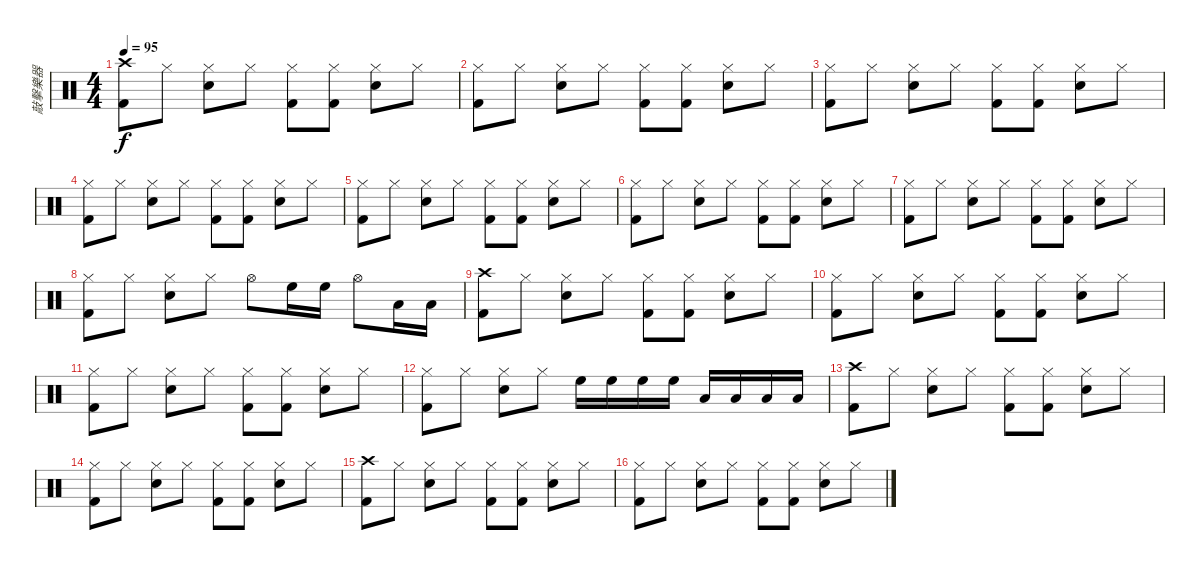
\track ("敲擊樂器" "敲擊樂器") {instrument percussion}
\staff {score}
\articulation defaults
\ts (4 4)
\tempo 95
\clef neutral
\ks c
("Crash high (hit)" "Kick (hit) 2").8{dy f} "Hi-Hat (closed)".8 ("Hi-Hat (closed)" "Snare (hit) 2").8 "Hi-Hat (closed)".8 ("Hi-Hat (closed)" "Kick (hit) 2").8 ("Hi-Hat (closed)" "Kick (hit) 2").8 ("Hi-Hat (closed)" "Snare (hit) 2").8 "Hi-Hat (closed)".8 |
("Hi-Hat (closed)" "Kick (hit) 2").8 "Hi-Hat (closed)".8 ("Hi-Hat (closed)" "Snare (hit) 2").8 "Hi-Hat (closed)".8 ("Hi-Hat (closed)" "Kick (hit) 2").8 ("Hi-Hat (closed)" "Kick (hit) 2").8 ("Hi-Hat (closed)" "Snare (hit) 2").8 "Hi-Hat (closed)".8 |
("Hi-Hat (closed)" "Kick (hit) 2").8 "Hi-Hat (closed)".8 ("Hi-Hat (closed)" "Snare (hit) 2").8 "Hi-Hat (closed)".8 ("Hi-Hat (closed)" "Kick (hit) 2").8 ("Hi-Hat (closed)" "Kick (hit) 2").8 ("Hi-Hat (closed)" "Snare (hit) 2").8 "Hi-Hat (closed)".8 |
("Hi-Hat (closed)" "Kick (hit) 2").8 "Hi-Hat (closed)".8 ("Hi-Hat (closed)" "Snare (hit) 2").8 "Hi-Hat (closed)".8 ("Hi-Hat (closed)" "Kick (hit) 2").8 ("Hi-Hat (closed)" "Kick (hit) 2").8 ("Hi-Hat (closed)" "Snare (hit) 2").8 "Hi-Hat (closed)".8 |
("Hi-Hat (closed)" "Kick (hit) 2").8 "Hi-Hat (closed)".8 ("Hi-Hat (closed)" "Snare (hit) 2").8 "Hi-Hat (closed)".8 ("Hi-Hat (closed)" "Kick (hit) 2").8 ("Hi-Hat (closed)" "Kick (hit) 2").8 ("Hi-Hat (closed)" "Snare (hit) 2").8 "Hi-Hat (closed)".8 |
("Hi-Hat (closed)" "Kick (hit) 2").8 "Hi-Hat (closed)".8 ("Hi-Hat (closed)" "Snare (hit) 2").8 "Hi-Hat (closed)".8 ("Hi-Hat (closed)" "Kick (hit) 2").8 ("Hi-Hat (closed)" "Kick (hit) 2").8 ("Hi-Hat (closed)" "Snare (hit) 2").8 "Hi-Hat (closed)".8 |
("Hi-Hat (closed)" "Kick (hit) 2").8 "Hi-Hat (closed)".8 ("Hi-Hat (closed)" "Snare (hit) 2").8 "Hi-Hat (closed)".8 ("Hi-Hat (closed)" "Kick (hit) 2").8 ("Hi-Hat (closed)" "Kick (hit) 2").8 ("Hi-Hat (closed)" "Snare (hit) 2").8 "Hi-Hat (closed)".8 |
("Hi-Hat (closed)" "Kick (hit) 2").8 "Hi-Hat (closed)".8 ("Hi-Hat (closed)" "Snare (hit) 2").8 "Hi-Hat (closed)".8 "Hi-Hat (open)".8 "High Floor Tom (hit)".16 "High Floor Tom (hit)".16 "Hi-Hat (open)".8 "Low Tom (hit)".16 "Low Tom (hit)".16 |
("Crash high (hit)" "Kick (hit) 2").8 "Hi-Hat (closed)".8 ("Hi-Hat (closed)" "Snare (hit) 2").8 "Hi-Hat (closed)".8 ("Hi-Hat (closed)" "Kick (hit) 2").8 ("Hi-Hat (closed)" "Kick (hit) 2").8 ("Hi-Hat (closed)" "Snare (hit) 2").8 "Hi-Hat (closed)".8 |
("Hi-Hat (closed)" "Kick (hit) 2").8 "Hi-Hat (closed)".8 ("Hi-Hat (closed)" "Snare (hit) 2").8 "Hi-Hat (closed)".8 ("Hi-Hat (closed)" "Kick (hit) 2").8 ("Hi-Hat (closed)" "Kick (hit) 2").8 ("Hi-Hat (closed)" "Snare (hit) 2").8 "Hi-Hat (closed)".8 |
("Hi-Hat (closed)" "Kick (hit) 2").8 "Hi-Hat (closed)".8 ("Hi-Hat (closed)" "Snare (hit) 2").8 "Hi-Hat (closed)".8 ("Hi-Hat (closed)" "Kick (hit) 2").8 ("Hi-Hat (closed)" "Kick (hit) 2").8 ("Hi-Hat (closed)" "Snare (hit) 2").8 "Hi-Hat (closed)".8 |
("Hi-Hat (closed)" "Kick (hit) 2").8 "Hi-Hat (closed)".8 ("Hi-Hat (closed)" "Snare (hit) 2").8 "Hi-Hat (closed)".8 "High Floor Tom (hit)".16 "High Floor Tom (hit)".16 "High Floor Tom (hit)".16 "High Floor Tom (hit)".16 "Low Tom (hit)".16 "Low Tom (hit)".16 "Low Tom (hit)".16 "Low Tom (hit)".16 |
("Crash high (hit)" "Kick (hit) 2").8 "Hi-Hat (closed)".8 ("Hi-Hat (closed)" "Snare (hit) 2").8 "Hi-Hat (closed)".8 ("Hi-Hat (closed)" "Kick (hit) 2").8 ("Hi-Hat (closed)" "Kick (hit) 2").8 ("Hi-Hat (closed)" "Snare (hit) 2").8 "Hi-Hat (closed)".8 |
("Hi-Hat (closed)" "Kick (hit) 2").8 "Hi-Hat (closed)".8 ("Hi-Hat (closed)" "Snare (hit) 2").8 "Hi-Hat (closed)".8 ("Hi-Hat (closed)" "Kick (hit) 2").8 ("Hi-Hat (closed)" "Kick (hit) 2").8 ("Hi-Hat (closed)" "Snare (hit) 2").8 "Hi-Hat (closed)".8 |
("Crash high (hit)" "Kick (hit) 2").8 "Hi-Hat (closed)".8 ("Hi-Hat (closed)" "Snare (hit) 2").8 "Hi-Hat (closed)".8 ("Hi-Hat (closed)" "Kick (hit) 2").8 ("Hi-Hat (closed)" "Kick (hit) 2").8 ("Hi-Hat (closed)" "Snare (hit) 2").8 "Hi-Hat (closed)".8 |
("Hi-Hat (closed)" "Kick (hit) 2").8 "Hi-Hat (closed)".8 ("Hi-Hat (closed)" "Snare (hit) 2").8 "Hi-Hat (closed)".8 ("Hi-Hat (closed)" "Kick (hit) 2").8 ("Hi-Hat (closed)" "Kick (hit) 2").8 ("Hi-Hat (closed)" "Snare (hit) 2").8 "Hi-Hat (closed)".8
